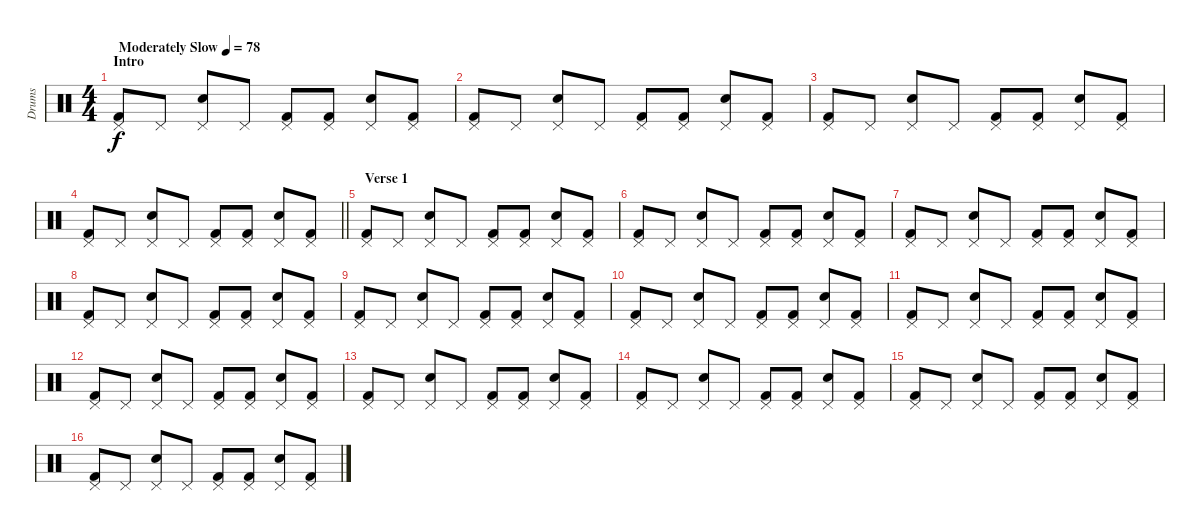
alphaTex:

\track ("Drums" "Drums") {instrument percussion}
\staff {score}
\articulation defaults
\ts (4 4)
\section ("" "Intro")
\tempo (78 "Moderately Slow")
\clef neutral
\ks c
("Pedal Hi-Hat (hit)" "Kick (hit) 2").8{dy f} "Pedal Hi-Hat (hit)".8 ("Pedal Hi-Hat (hit)" "Snare (hit) 2").8 "Pedal Hi-Hat (hit)".8 ("Pedal Hi-Hat (hit)" "Kick (hit) 2").8 ("Pedal Hi-Hat (hit)" "Kick (hit) 2").8 ("Pedal Hi-Hat (hit)" "Snare (hit) 2").8 ("Pedal Hi-Hat (hit)" "Kick (hit) 2").8 |
("Pedal Hi-Hat (hit)" "Kick (hit) 2").8 "Pedal Hi-Hat (hit)".8 ("Pedal Hi-Hat (hit)" "Snare (hit) 2").8 "Pedal Hi-Hat (hit)".8 ("Pedal Hi-Hat (hit)" "Kick (hit) 2").8 ("Pedal Hi-Hat (hit)" "Kick (hit) 2").8 ("Pedal Hi-Hat (hit)" "Snare (hit) 2").8 ("Pedal Hi-Hat (hit)" "Kick (hit) 2").8 |
("Pedal Hi-Hat (hit)" "Kick (hit) 2").8 "Pedal Hi-Hat (hit)".8 ("Pedal Hi-Hat (hit)" "Snare (hit) 2").8 "Pedal Hi-Hat (hit)".8 ("Pedal Hi-Hat (hit)" "Kick (hit) 2").8 ("Pedal Hi-Hat (hit)" "Kick (hit) 2").8 ("Pedal Hi-Hat (hit)" "Snare (hit) 2").8 ("Pedal Hi-Hat (hit)" "Kick (hit) 2").8 |
\barLineRight lightlight
("Pedal Hi-Hat (hit)" "Kick (hit) 2").8 "Pedal Hi-Hat (hit)".8 ("Pedal Hi-Hat (hit)" "Snare (hit) 2").8 "Pedal Hi-Hat (hit)".8 ("Pedal Hi-Hat (hit)" "Kick (hit) 2").8 ("Pedal Hi-Hat (hit)" "Kick (hit) 2").8 ("Pedal Hi-Hat (hit)" "Snare (hit) 2").8 ("Pedal Hi-Hat (hit)" "Kick (hit) 2").8 |
\section ("" " Verse 1")
("Pedal Hi-Hat (hit)" "Kick (hit) 2").8 "Pedal Hi-Hat (hit)".8 ("Pedal Hi-Hat (hit)" "Snare (hit) 2").8 "Pedal Hi-Hat (hit)".8 ("Pedal Hi-Hat (hit)" "Kick (hit) 2").8 ("Pedal Hi-Hat (hit)" "Kick (hit) 2").8 ("Pedal Hi-Hat (hit)" "Snare (hit) 2").8 ("Pedal Hi-Hat (hit)" "Kick (hit) 2").8 |
("Pedal Hi-Hat (hit)" "Kick (hit) 2").8 "Pedal Hi-Hat (hit)".8 ("Pedal Hi-Hat (hit)" "Snare (hit) 2").8 "Pedal Hi-Hat (hit)".8 ("Pedal Hi-Hat (hit)" "Kick (hit) 2").8 ("Pedal Hi-Hat (hit)" "Kick (hit) 2").8 ("Pedal Hi-Hat (hit)" "Snare (hit) 2").8 ("Pedal Hi-Hat (hit)" "Kick (hit) 2").8 |
("Pedal Hi-Hat (hit)" "Kick (hit) 2").8 "Pedal Hi-Hat (hit)".8 ("Pedal Hi-Hat (hit)" "Snare (hit) 2").8 "Pedal Hi-Hat (hit)".8 ("Pedal Hi-Hat (hit)" "Kick (hit) 2").8 ("Pedal Hi-Hat (hit)" "Kick (hit) 2").8 ("Pedal Hi-Hat (hit)" "Snare (hit) 2").8 ("Pedal Hi-Hat (hit)" "Kick (hit) 2").8 |
("Pedal Hi-Hat (hit)" "Kick (hit) 2").8 "Pedal Hi-Hat (hit)".8 ("Pedal Hi-Hat (hit)" "Snare (hit) 2").8 "Pedal Hi-Hat (hit)".8 ("Pedal Hi-Hat (hit)" "Kick (hit) 2").8 ("Pedal Hi-Hat (hit)" "Kick (hit) 2").8 ("Pedal Hi-Hat (hit)" "Snare (hit) 2").8 ("Pedal Hi-Hat (hit)" "Kick (hit) 2").8 |
("Pedal Hi-Hat (hit)" "Kick (hit) 2").8 "Pedal Hi-Hat (hit)".8 ("Pedal Hi-Hat (hit)" "Snare (hit) 2").8 "Pedal Hi-Hat (hit)".8 ("Pedal Hi-Hat (hit)" "Kick (hit) 2").8 ("Pedal Hi-Hat (hit)" "Kick (hit) 2").8 ("Pedal Hi-Hat (hit)" "Snare (hit) 2").8 ("Pedal Hi-Hat (hit)" "Kick (hit) 2").8 |
("Pedal Hi-Hat (hit)" "Kick (hit) 2").8 "Pedal Hi-Hat (hit)".8 ("Pedal Hi-Hat (hit)" "Snare (hit) 2").8 "Pedal Hi-Hat (hit)".8 ("Pedal Hi-Hat (hit)" "Kick (hit) 2").8 ("Pedal Hi-Hat (hit)" "Kick (hit) 2").8 ("Pedal Hi-Hat (hit)" "Snare (hit) 2").8 ("Pedal Hi-Hat (hit)" "Kick (hit) 2").8 |
("Pedal Hi-Hat (hit)" "Kick (hit) 2").8 "Pedal Hi-Hat (hit)".8 ("Pedal Hi-Hat (hit)" "Snare (hit) 2").8 "Pedal Hi-Hat (hit)".8 ("Pedal Hi-Hat (hit)" "Kick (hit) 2").8 ("Pedal Hi-Hat (hit)" "Kick (hit) 2").8 ("Pedal Hi-Hat (hit)" "Snare (hit) 2").8 ("Pedal Hi-Hat (hit)" "Kick (hit) 2").8 |
("Pedal Hi-Hat (hit)" "Kick (hit) 2").8 "Pedal Hi-Hat (hit)".8 ("Pedal Hi-Hat (hit)" "Snare (hit) 2").8 "Pedal Hi-Hat (hit)".8 ("Pedal Hi-Hat (hit)" "Kick (hit) 2").8 ("Pedal Hi-Hat (hit)" "Kick (hit) 2").8 ("Pedal Hi-Hat (hit)" "Snare (hit) 2").8 ("Pedal Hi-Hat (hit)" "Kick (hit) 2").8 |
("Pedal Hi-Hat (hit)" "Kick (hit) 2").8 "Pedal Hi-Hat (hit)".8 ("Pedal Hi-Hat (hit)" "Snare (hit) 2").8 "Pedal Hi-Hat (hit)".8 ("Pedal Hi-Hat (hit)" "Kick (hit) 2").8 ("Pedal Hi-Hat (hit)" "Kick (hit) 2").8 ("Pedal Hi-Hat (hit)" "Snare (hit) 2").8 ("Pedal Hi-Hat (hit)" "Kick (hit) 2").8 |
("Pedal Hi-Hat (hit)" "Kick (hit) 2").8 "Pedal Hi-Hat (hit)".8 ("Pedal Hi-Hat (hit)" "Snare (hit) 2").8 "Pedal Hi-Hat (hit)".8 ("Pedal Hi-Hat (hit)" "Kick (hit) 2").8 ("Pedal Hi-Hat (hit)" "Kick (hit) 2").8 ("Pedal Hi-Hat (hit)" "Snare (hit) 2").8 ("Pedal Hi-Hat (hit)" "Kick (hit) 2").8 |
("Pedal Hi-Hat (hit)" "Kick (hit) 2").8 "Pedal Hi-Hat (hit)".8 ("Pedal Hi-Hat (hit)" "Snare (hit) 2").8 "Pedal Hi-Hat (hit)".8 ("Pedal Hi-Hat (hit)" "Kick (hit) 2").8 ("Pedal Hi-Hat (hit)" "Kick (hit) 2").8 ("Pedal Hi-Hat (hit)" "Snare (hit) 2").8 ("Pedal Hi-Hat (hit)" "Kick (hit) 2").8 |
("Pedal Hi-Hat (hit)" "Kick (hit) 2").8 "Pedal Hi-Hat (hit)".8 ("Pedal Hi-Hat (hit)" "Snare (hit) 2").8 "Pedal Hi-Hat (hit)".8 ("Pedal Hi-Hat (hit)" "Kick (hit) 2").8 ("Pedal Hi-Hat (hit)" "Kick (hit) 2").8 ("Pedal Hi-Hat (hit)" "Snare (hit) 2").8 ("Pedal Hi-Hat (hit)" "Kick (hit) 2").8
